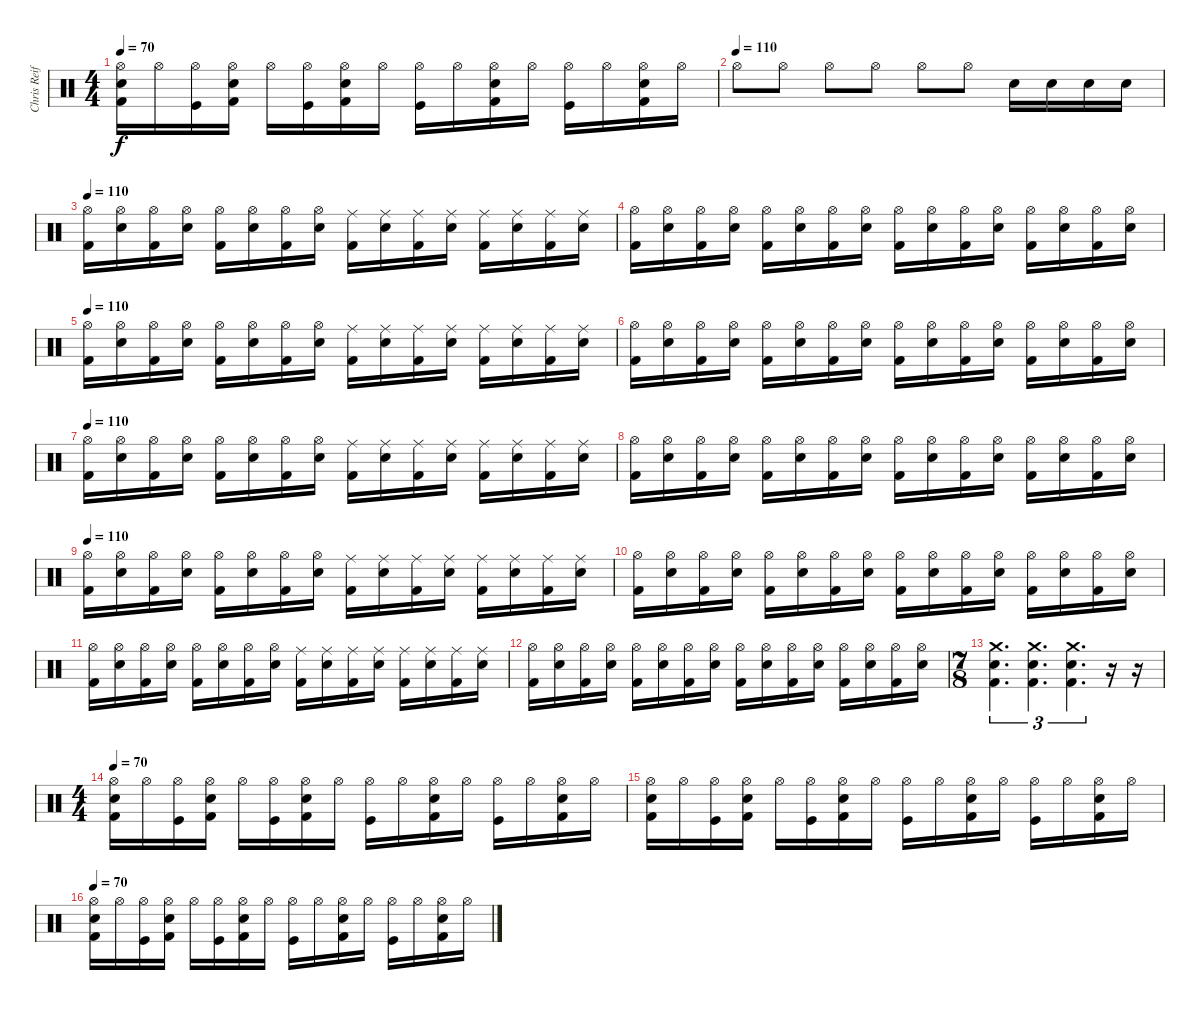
\track ("Chris Reifert" "Chris Reif") {instrument percussion}
\staff {score}
\articulation defaults
\ts (4 4)
\tempo 70
\clef neutral
\ks c
("Hi-Hat (open)" "Snare (hit) 2" "Kick (hit) 2").16{dy f} "Hi-Hat (open)".16 ("Hi-Hat (open)" "Kick (hit)").16 ("Hi-Hat (open)" "Snare (hit) 2" "Kick (hit) 2").16 "Hi-Hat (open)".16 ("Hi-Hat (open)" "Kick (hit)").16 ("Hi-Hat (open)" "Snare (hit) 2" "Kick (hit) 2").16 "Hi-Hat (open)".16 ("Hi-Hat (open)" "Kick (hit)").16 "Hi-Hat (open)".16 ("Hi-Hat (open)" "Snare (hit) 2" "Kick (hit) 2").16 "Hi-Hat (open)".16 ("Hi-Hat (open)" "Kick (hit)").16 "Hi-Hat (open)".16 ("Hi-Hat (open)" "Snare (hit) 2" "Kick (hit) 2").16 "Hi-Hat (open)".16 |
\tempo (110)
"Hi-Hat (open)".8 "Hi-Hat (open)".8 "Hi-Hat (open)".8 "Hi-Hat (open)".8 "Hi-Hat (open)".8 "Hi-Hat (open)".8 "Snare (hit) 2".16 "Snare (hit) 2".16 "Snare (hit) 2".16 "Snare (hit) 2".16 |
\tempo 110
("Hi-Hat (open)" "Kick (hit) 2").16 ("Hi-Hat (open)" "Snare (hit) 2").16 ("Hi-Hat (open)" "Kick (hit) 2").16 ("Hi-Hat (open)" "Snare (hit) 2").16 ("Hi-Hat (open)" "Kick (hit) 2").16 ("Hi-Hat (open)" "Snare (hit) 2").16 ("Hi-Hat (open)" "Kick (hit) 2").16 ("Hi-Hat (open)" "Snare (hit) 2").16 ("Ride (middle)" "Kick (hit) 2").16 ("Ride (middle)" "Snare (hit) 2").16 ("Ride (middle)" "Kick (hit) 2").16 ("Ride (middle)" "Snare (hit) 2").16 ("Ride (middle)" "Kick (hit) 2").16 ("Ride (middle)" "Snare (hit) 2").16 ("Ride (middle)" "Kick (hit) 2").16 ("Ride (middle)" "Snare (hit) 2").16 |
("Hi-Hat (open)" "Kick (hit) 2").16 ("Hi-Hat (open)" "Snare (hit) 2").16 ("Hi-Hat (open)" "Kick (hit) 2").16 ("Hi-Hat (open)" "Snare (hit) 2").16 ("Hi-Hat (open)" "Kick (hit) 2").16 ("Hi-Hat (open)" "Snare (hit) 2").16 ("Hi-Hat (open)" "Kick (hit) 2").16 ("Hi-Hat (open)" "Snare (hit) 2").16 ("Hi-Hat (open)" "Kick (hit) 2").16 ("Hi-Hat (open)" "Snare (hit) 2").16 ("Hi-Hat (open)" "Kick (hit) 2").16 ("Hi-Hat (open)" "Snare (hit) 2").16 ("Hi-Hat (open)" "Kick (hit) 2").16 ("Hi-Hat (open)" "Snare (hit) 2").16 ("Hi-Hat (open)" "Kick (hit) 2").16 ("Hi-Hat (open)" "Snare (hit) 2").16 |
\tempo 110
("Hi-Hat (open)" "Kick (hit) 2").16 ("Hi-Hat (open)" "Snare (hit) 2").16 ("Hi-Hat (open)" "Kick (hit) 2").16 ("Hi-Hat (open)" "Snare (hit) 2").16 ("Hi-Hat (open)" "Kick (hit) 2").16 ("Hi-Hat (open)" "Snare (hit) 2").16 ("Hi-Hat (open)" "Kick (hit) 2").16 ("Hi-Hat (open)" "Snare (hit) 2").16 ("Ride (middle)" "Kick (hit) 2").16 ("Ride (middle)" "Snare (hit) 2").16 ("Ride (middle)" "Kick (hit) 2").16 ("Ride (middle)" "Snare (hit) 2").16 ("Ride (middle)" "Kick (hit) 2").16 ("Ride (middle)" "Snare (hit) 2").16 ("Ride (middle)" "Kick (hit) 2").16 ("Ride (middle)" "Snare (hit) 2").16 |
("Hi-Hat (open)" "Kick (hit) 2").16 ("Hi-Hat (open)" "Snare (hit) 2").16 ("Hi-Hat (open)" "Kick (hit) 2").16 ("Hi-Hat (open)" "Snare (hit) 2").16 ("Hi-Hat (open)" "Kick (hit) 2").16 ("Hi-Hat (open)" "Snare (hit) 2").16 ("Hi-Hat (open)" "Kick (hit) 2").16 ("Hi-Hat (open)" "Snare (hit) 2").16 ("Hi-Hat (open)" "Kick (hit) 2").16 ("Hi-Hat (open)" "Snare (hit) 2").16 ("Hi-Hat (open)" "Kick (hit) 2").16 ("Hi-Hat (open)" "Snare (hit) 2").16 ("Hi-Hat (open)" "Kick (hit) 2").16 ("Hi-Hat (open)" "Snare (hit) 2").16 ("Hi-Hat (open)" "Kick (hit) 2").16 ("Hi-Hat (open)" "Snare (hit) 2").16 |
\tempo 110
("Hi-Hat (open)" "Kick (hit) 2").16 ("Hi-Hat (open)" "Snare (hit) 2").16 ("Hi-Hat (open)" "Kick (hit) 2").16 ("Hi-Hat (open)" "Snare (hit) 2").16 ("Hi-Hat (open)" "Kick (hit) 2").16 ("Hi-Hat (open)" "Snare (hit) 2").16 ("Hi-Hat (open)" "Kick (hit) 2").16 ("Hi-Hat (open)" "Snare (hit) 2").16 ("Ride (middle)" "Kick (hit) 2").16 ("Ride (middle)" "Snare (hit) 2").16 ("Ride (middle)" "Kick (hit) 2").16 ("Ride (middle)" "Snare (hit) 2").16 ("Ride (middle)" "Kick (hit) 2").16 ("Ride (middle)" "Snare (hit) 2").16 ("Ride (middle)" "Kick (hit) 2").16 ("Ride (middle)" "Snare (hit) 2").16 |
("Hi-Hat (open)" "Kick (hit) 2").16 ("Hi-Hat (open)" "Snare (hit) 2").16 ("Hi-Hat (open)" "Kick (hit) 2").16 ("Hi-Hat (open)" "Snare (hit) 2").16 ("Hi-Hat (open)" "Kick (hit) 2").16 ("Hi-Hat (open)" "Snare (hit) 2").16 ("Hi-Hat (open)" "Kick (hit) 2").16 ("Hi-Hat (open)" "Snare (hit) 2").16 ("Hi-Hat (open)" "Kick (hit) 2").16 ("Hi-Hat (open)" "Snare (hit) 2").16 ("Hi-Hat (open)" "Kick (hit) 2").16 ("Hi-Hat (open)" "Snare (hit) 2").16 ("Hi-Hat (open)" "Kick (hit) 2").16 ("Hi-Hat (open)" "Snare (hit) 2").16 ("Hi-Hat (open)" "Kick (hit) 2").16 ("Hi-Hat (open)" "Snare (hit) 2").16 |
\tempo 110
("Hi-Hat (open)" "Kick (hit) 2").16 ("Hi-Hat (open)" "Snare (hit) 2").16 ("Hi-Hat (open)" "Kick (hit) 2").16 ("Hi-Hat (open)" "Snare (hit) 2").16 ("Hi-Hat (open)" "Kick (hit) 2").16 ("Hi-Hat (open)" "Snare (hit) 2").16 ("Hi-Hat (open)" "Kick (hit) 2").16 ("Hi-Hat (open)" "Snare (hit) 2").16 ("Ride (middle)" "Kick (hit) 2").16 ("Ride (middle)" "Snare (hit) 2").16 ("Ride (middle)" "Kick (hit) 2").16 ("Ride (middle)" "Snare (hit) 2").16 ("Ride (middle)" "Kick (hit) 2").16 ("Ride (middle)" "Snare (hit) 2").16 ("Ride (middle)" "Kick (hit) 2").16 ("Ride (middle)" "Snare (hit) 2").16 |
("Hi-Hat (open)" "Kick (hit) 2").16 ("Hi-Hat (open)" "Snare (hit) 2").16 ("Hi-Hat (open)" "Kick (hit) 2").16 ("Hi-Hat (open)" "Snare (hit) 2").16 ("Hi-Hat (open)" "Kick (hit) 2").16 ("Hi-Hat (open)" "Snare (hit) 2").16 ("Hi-Hat (open)" "Kick (hit) 2").16 ("Hi-Hat (open)" "Snare (hit) 2").16 ("Hi-Hat (open)" "Kick (hit) 2").16 ("Hi-Hat (open)" "Snare (hit) 2").16 ("Hi-Hat (open)" "Kick (hit) 2").16 ("Hi-Hat (open)" "Snare (hit) 2").16 ("Hi-Hat (open)" "Kick (hit) 2").16 ("Hi-Hat (open)" "Snare (hit) 2").16 ("Hi-Hat (open)" "Kick (hit) 2").16 ("Hi-Hat (open)" "Snare (hit) 2").16 |
("Hi-Hat (open)" "Kick (hit) 2").16 ("Hi-Hat (open)" "Snare (hit) 2").16 ("Hi-Hat (open)" "Kick (hit) 2").16 ("Hi-Hat (open)" "Snare (hit) 2").16 ("Hi-Hat (open)" "Kick (hit) 2").16 ("Hi-Hat (open)" "Snare (hit) 2").16 ("Hi-Hat (open)" "Kick (hit) 2").16 ("Hi-Hat (open)" "Snare (hit) 2").16 ("Ride (middle)" "Kick (hit) 2").16 ("Ride (middle)" "Snare (hit) 2").16 ("Ride (middle)" "Kick (hit) 2").16 ("Ride (middle)" "Snare (hit) 2").16 ("Ride (middle)" "Kick (hit) 2").16 ("Ride (middle)" "Snare (hit) 2").16 ("Ride (middle)" "Kick (hit) 2").16 ("Ride (middle)" "Snare (hit) 2").16 |
("Hi-Hat (open)" "Kick (hit) 2").16 ("Hi-Hat (open)" "Snare (hit) 2").16 ("Hi-Hat (open)" "Kick (hit) 2").16 ("Hi-Hat (open)" "Snare (hit) 2").16 ("Hi-Hat (open)" "Kick (hit) 2").16 ("Hi-Hat (open)" "Snare (hit) 2").16 ("Hi-Hat (open)" "Kick (hit) 2").16 ("Hi-Hat (open)" "Snare (hit) 2").16 ("Hi-Hat (open)" "Kick (hit) 2").16 ("Hi-Hat (open)" "Snare (hit) 2").16 ("Hi-Hat (open)" "Kick (hit) 2").16 ("Hi-Hat (open)" "Snare (hit) 2").16 ("Hi-Hat (open)" "Kick (hit) 2").16 ("Hi-Hat (open)" "Snare (hit) 2").16 ("Hi-Hat (open)" "Kick (hit) 2").16 ("Hi-Hat (open)" "Snare (hit) 2").16 |
\ts (7 8)
("Crash medium (hit)" "Snare (hit) 2" "Kick (hit) 2").4{d tu (3 2)} ("Crash medium (hit)" "Snare (hit) 2" "Kick (hit) 2").4{d tu (3 2)} ("Crash medium (hit)" "Snare (hit) 2" "Kick (hit) 2").4{d tu (3 2)} r.16 r.16 |
\ts (4 4)
\tempo 70
("Hi-Hat (open)" "Snare (hit) 2" "Kick (hit) 2").16 "Hi-Hat (open)".16 ("Hi-Hat (open)" "Kick (hit)").16 ("Hi-Hat (open)" "Snare (hit) 2" "Kick (hit) 2").16 "Hi-Hat (open)".16 ("Hi-Hat (open)" "Kick (hit)").16 ("Hi-Hat (open)" "Snare (hit) 2" "Kick (hit) 2").16 "Hi-Hat (open)".16 ("Hi-Hat (open)" "Kick (hit)").16 "Hi-Hat (open)".16 ("Hi-Hat (open)" "Snare (hit) 2" "Kick (hit) 2").16 "Hi-Hat (open)".16 ("Hi-Hat (open)" "Kick (hit)").16 "Hi-Hat (open)".16 ("Hi-Hat (open)" "Snare (hit) 2" "Kick (hit) 2").16 "Hi-Hat (open)".16 |
("Hi-Hat (open)" "Snare (hit) 2" "Kick (hit) 2").16 "Hi-Hat (open)".16 ("Hi-Hat (open)" "Kick (hit)").16 ("Hi-Hat (open)" "Snare (hit) 2" "Kick (hit) 2").16 "Hi-Hat (open)".16 ("Hi-Hat (open)" "Kick (hit)").16 ("Hi-Hat (open)" "Snare (hit) 2" "Kick (hit) 2").16 "Hi-Hat (open)".16 ("Hi-Hat (open)" "Kick (hit)").16 "Hi-Hat (open)".16 ("Hi-Hat (open)" "Snare (hit) 2" "Kick (hit) 2").16 "Hi-Hat (open)".16 ("Hi-Hat (open)" "Kick (hit)").16 "Hi-Hat (open)".16 ("Hi-Hat (open)" "Snare (hit) 2" "Kick (hit) 2").16 "Hi-Hat (open)".16 |
\tempo 70
("Hi-Hat (open)" "Snare (hit) 2" "Kick (hit) 2").16 "Hi-Hat (open)".16 ("Hi-Hat (open)" "Kick (hit)").16 ("Hi-Hat (open)" "Snare (hit) 2" "Kick (hit) 2").16 "Hi-Hat (open)".16 ("Hi-Hat (open)" "Kick (hit)").16 ("Hi-Hat (open)" "Snare (hit) 2" "Kick (hit) 2").16 "Hi-Hat (open)".16 ("Hi-Hat (open)" "Kick (hit)").16 "Hi-Hat (open)".16 ("Hi-Hat (open)" "Snare (hit) 2" "Kick (hit) 2").16 "Hi-Hat (open)".16 ("Hi-Hat (open)" "Kick (hit)").16 "Hi-Hat (open)".16 ("Hi-Hat (open)" "Snare (hit) 2" "Kick (hit) 2").16 "Hi-Hat (open)".16
